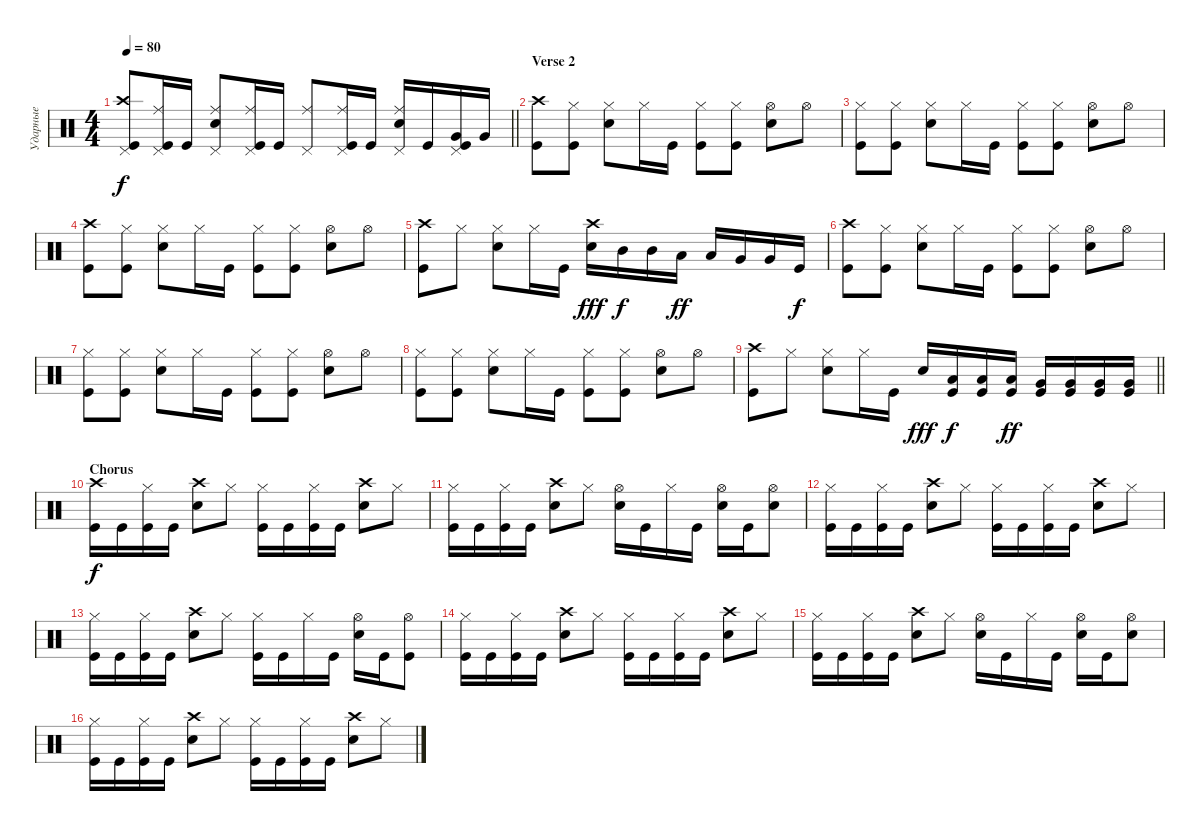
\track ("Ударные" "Ударные") {instrument percussion}
\staff {score}
\articulation defaults
\ts (4 4)
\tempo 80
\clef neutral
\barLineRight lightlight
\ks aminor
("Kick (hit)" "Crash high (hit)" "Pedal Hi-Hat (hit)").8{dy f} ("Kick (hit)" "Ride (middle)" "Pedal Hi-Hat (hit)").16 "Kick (hit)".16 ("Snare (hit) 2" "Ride (middle)" "Pedal Hi-Hat (hit)").8 ("Kick (hit)" "Ride (middle)" "Pedal Hi-Hat (hit)").16 "Kick (hit)".16 ("Ride (middle)" "Pedal Hi-Hat (hit)").8 ("Kick (hit)" "Ride (middle)" "Pedal Hi-Hat (hit)").16 "Kick (hit)".16 ("Snare (hit) 2" "Ride (middle)" "Pedal Hi-Hat (hit)").16 "Kick (hit)".16 ("Very Low Tom (hit)" "Kick (hit)" "Pedal Hi-Hat (hit)").16 "Very Low Tom (hit)".16 |
\section ("" "Verse 2")
("Kick (hit)" "Crash high (hit)").8 ("Kick (hit)" "Hi-Hat (closed)").8 ("Hi-Hat (closed)" "Snare (hit) 2").8 "Hi-Hat (closed)".16 "Kick (hit)".16 ("Kick (hit)" "Hi-Hat (closed)").8 ("Kick (hit)" "Hi-Hat (closed)").8 ("Snare (hit) 2" "Hi-Hat (open)").8 "Hi-Hat (open)".8 |
("Kick (hit)" "Hi-Hat (closed)").8 ("Kick (hit)" "Hi-Hat (closed)").8 ("Hi-Hat (closed)" "Snare (hit) 2").8 "Hi-Hat (closed)".16 "Kick (hit)".16 ("Kick (hit)" "Hi-Hat (closed)").8 ("Kick (hit)" "Hi-Hat (closed)").8 ("Snare (hit) 2" "Hi-Hat (open)").8 "Hi-Hat (open)".8 |
("Kick (hit)" "Crash high (hit)").8 ("Kick (hit)" "Hi-Hat (closed)").8 ("Hi-Hat (closed)" "Snare (hit) 2").8 "Hi-Hat (closed)".16 "Kick (hit)".16 ("Kick (hit)" "Hi-Hat (closed)").8 ("Kick (hit)" "Hi-Hat (closed)").8 ("Snare (hit) 2" "Hi-Hat (open)").8 "Hi-Hat (open)".8 |
("Kick (hit)" "Crash high (hit)").8 "Hi-Hat (closed)".8 ("Hi-Hat (closed)" "Snare (hit) 2").8 "Hi-Hat (closed)".16 "Kick (hit)".16 ("Crash high (hit)" "Snare (hit) 2").16{bd 480 dy fff} "Mid Tom (hit)".16{dy f} "Mid Tom (hit)".16 "Low Tom (hit)".16{dy ff} "Low Tom (hit)".16 "Very Low Tom (hit)".16 "Very Low Tom (hit)".16 "Kick (hit)".16{dy f} |
("Kick (hit)" "Crash high (hit)").8 ("Kick (hit)" "Hi-Hat (closed)").8 ("Hi-Hat (closed)" "Snare (hit) 2").8 "Hi-Hat (closed)".16 "Kick (hit)".16 ("Kick (hit)" "Hi-Hat (closed)").8 ("Kick (hit)" "Hi-Hat (closed)").8 ("Snare (hit) 2" "Hi-Hat (open)").8 "Hi-Hat (open)".8 |
("Kick (hit)" "Hi-Hat (closed)").8 ("Kick (hit)" "Hi-Hat (closed)").8 ("Hi-Hat (closed)" "Snare (hit) 2").8 "Hi-Hat (closed)".16 "Kick (hit)".16 ("Kick (hit)" "Hi-Hat (closed)").8 ("Kick (hit)" "Hi-Hat (closed)").8 ("Snare (hit) 2" "Hi-Hat (open)").8 "Hi-Hat (open)".8 |
("Kick (hit)" "Hi-Hat (closed)").8 ("Kick (hit)" "Hi-Hat (closed)").8 ("Hi-Hat (closed)" "Snare (hit) 2").8 "Hi-Hat (closed)".16 "Kick (hit)".16 ("Kick (hit)" "Hi-Hat (closed)").8 ("Kick (hit)" "Hi-Hat (closed)").8 ("Snare (hit) 2" "Hi-Hat (open)").8 "Hi-Hat (open)".8 |
\barLineRight lightlight
("Kick (hit)" "Crash high (hit)").8 "Hi-Hat (closed)".8 ("Hi-Hat (closed)" "Snare (hit) 2").8 "Hi-Hat (closed)".16 "Kick (hit)".16 "Snare (hit) 2".16{bd 480 dy fff} ("Kick (hit)" "Low Tom (hit)").16{dy f} ("Kick (hit)" "Low Tom (hit)").16 ("Kick (hit)" "Low Tom (hit)").16{dy ff} ("Kick (hit)" "Very Low Tom (hit)").16 ("Kick (hit)" "Very Low Tom (hit)").16 ("Kick (hit)" "Very Low Tom (hit)").16 ("Kick (hit)" "Very Low Tom (hit)").16 |
\section ("" "Chorus")
("Kick (hit)" "Crash high (hit)").16{dy f} "Kick (hit)".16 ("Kick (hit)" "Hi-Hat (closed)").16 "Kick (hit)".16 ("Snare (hit) 2" "Crash high (hit)").8 "Hi-Hat (closed)".8 ("Kick (hit)" "Hi-Hat (closed)").16 "Kick (hit)".16 ("Kick (hit)" "Hi-Hat (closed)").16 "Kick (hit)".16 ("Snare (hit) 2" "Crash high (hit)").8 "Hi-Hat (closed)".8 |
("Kick (hit)" "Hi-Hat (closed)").16 "Kick (hit)".16 ("Kick (hit)" "Hi-Hat (closed)").16 "Kick (hit)".16 ("Snare (hit) 2" "Crash high (hit)").8 "Hi-Hat (closed)".8 ("Hi-Hat (open)" "Snare (hit) 2").16 "Kick (hit)".16 "Hi-Hat (closed)".16 "Kick (hit)".16 ("Snare (hit) 2" "Hi-Hat (open)").16 "Kick (hit)".16 ("Hi-Hat (open)" "Snare (hit) 2").8 |
("Kick (hit)" "Hi-Hat (closed)").16 "Kick (hit)".16 ("Kick (hit)" "Hi-Hat (closed)").16 "Kick (hit)".16 ("Snare (hit) 2" "Crash high (hit)").8 "Hi-Hat (closed)".8 ("Kick (hit)" "Hi-Hat (closed)").16 "Kick (hit)".16 ("Kick (hit)" "Hi-Hat (closed)").16 "Kick (hit)".16 ("Snare (hit) 2" "Crash high (hit)").8 "Hi-Hat (closed)".8 |
("Kick (hit)" "Hi-Hat (closed)").16 "Kick (hit)".16 ("Kick (hit)" "Hi-Hat (closed)").16 "Kick (hit)".16 ("Snare (hit) 2" "Crash high (hit)").8 "Hi-Hat (closed)".8 ("Hi-Hat (closed)" "Kick (hit)").16 "Kick (hit)".16 "Hi-Hat (closed)".16 "Kick (hit)".16 ("Snare (hit) 2" "Hi-Hat (open)").16 "Kick (hit)".16 ("Hi-Hat (open)" "Kick (hit)").8 |
("Kick (hit)" "Hi-Hat (closed)").16 "Kick (hit)".16 ("Kick (hit)" "Hi-Hat (closed)").16 "Kick (hit)".16 ("Snare (hit) 2" "Crash high (hit)").8 "Hi-Hat (closed)".8 ("Kick (hit)" "Hi-Hat (closed)").16 "Kick (hit)".16 ("Kick (hit)" "Hi-Hat (closed)").16 "Kick (hit)".16 ("Snare (hit) 2" "Crash high (hit)").8 "Hi-Hat (closed)".8 |
("Kick (hit)" "Hi-Hat (closed)").16 "Kick (hit)".16 ("Kick (hit)" "Hi-Hat (closed)").16 "Kick (hit)".16 ("Snare (hit) 2" "Crash high (hit)").8 "Hi-Hat (closed)".8 ("Hi-Hat (open)" "Snare (hit) 2").16 "Kick (hit)".16 "Hi-Hat (closed)".16 "Kick (hit)".16 ("Snare (hit) 2" "Hi-Hat (open)").16 "Kick (hit)".16 ("Hi-Hat (open)" "Snare (hit) 2").8 |
("Kick (hit)" "Hi-Hat (closed)").16 "Kick (hit)".16 ("Kick (hit)" "Hi-Hat (closed)").16 "Kick (hit)".16 ("Snare (hit) 2" "Crash high (hit)").8 "Hi-Hat (closed)".8 ("Kick (hit)" "Hi-Hat (closed)").16 "Kick (hit)".16 ("Kick (hit)" "Hi-Hat (closed)").16 "Kick (hit)".16 ("Snare (hit) 2" "Crash high (hit)").8 "Hi-Hat (closed)".8
